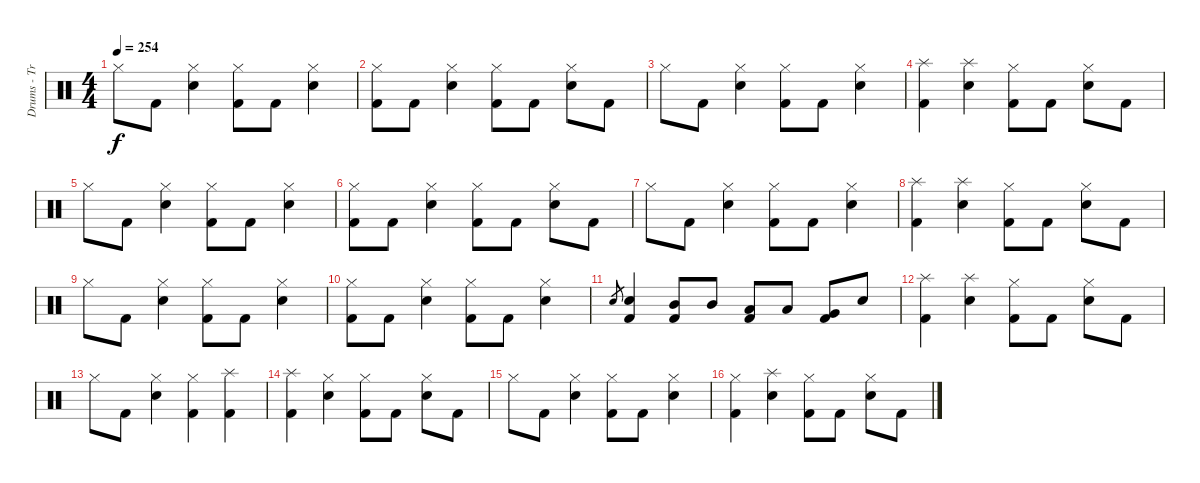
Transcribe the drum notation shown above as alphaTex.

\track ("Drums - Travis Barker" "Drums - Tr") {instrument percussion}
\staff {score}
\articulation defaults
\ts (4 4)
\tempo 254
\clef neutral
\ks c "Hi-Hat (closed)".8{dy f} "Kick (hit) 2".8
("Hi-Hat (closed)" "Electric Snare (hit)").4 ("Hi-Hat (closed)" "Kick (hit) 2").8 "Kick (hit) 2".8 ("Hi-Hat (closed)" "Electric Snare (hit)").4 |
("Hi-Hat (closed)" "Kick (hit) 2").8 "Kick (hit) 2".8 ("Hi-Hat (closed)" "Electric Snare (hit)").4 ("Hi-Hat (closed)" "Kick (hit) 2").8 "Kick (hit) 2".8 ("Hi-Hat (closed)" "Electric Snare (hit)").8 "Kick (hit) 2".8 |
"Hi-Hat (closed)".8 "Kick (hit) 2".8 ("Hi-Hat (closed)" "Electric Snare (hit)").4 ("Hi-Hat (closed)" "Kick (hit) 2").8 "Kick (hit) 2".8 ("Hi-Hat (closed)" "Electric Snare (hit)").4 |
("Splash (hit)" "Kick (hit) 2").4 ("Splash (hit)" "Electric Snare (hit)").4 ("Hi-Hat (closed)" "Kick (hit) 2").8 "Kick (hit) 2".8 ("Hi-Hat (closed)" "Electric Snare (hit)").8 "Kick (hit) 2".8 |
"Hi-Hat (closed)".8 "Kick (hit) 2".8 ("Hi-Hat (closed)" "Electric Snare (hit)").4 ("Hi-Hat (closed)" "Kick (hit) 2").8 "Kick (hit) 2".8 ("Hi-Hat (closed)" "Electric Snare (hit)").4 |
("Hi-Hat (closed)" "Kick (hit) 2").8 "Kick (hit) 2".8 ("Hi-Hat (closed)" "Electric Snare (hit)").4 ("Hi-Hat (closed)" "Kick (hit) 2").8 "Kick (hit) 2".8 ("Hi-Hat (closed)" "Electric Snare (hit)").8 "Kick (hit) 2".8 |
"Hi-Hat (closed)".8 "Kick (hit) 2".8 ("Hi-Hat (closed)" "Electric Snare (hit)").4 ("Hi-Hat (closed)" "Kick (hit) 2").8 "Kick (hit) 2".8 ("Hi-Hat (closed)" "Electric Snare (hit)").4 |
("Splash (hit)" "Kick (hit) 2").4 ("Splash (hit)" "Electric Snare (hit)").4 ("Hi-Hat (closed)" "Kick (hit) 2").8 "Kick (hit) 2".8 ("Hi-Hat (closed)" "Electric Snare (hit)").8 "Kick (hit) 2".8 |
"Hi-Hat (closed)".8 "Kick (hit) 2".8 ("Hi-Hat (closed)" "Electric Snare (hit)").4 ("Hi-Hat (closed)" "Kick (hit) 2").8 "Kick (hit) 2".8 ("Hi-Hat (closed)" "Electric Snare (hit)").4 |
("Hi-Hat (closed)" "Kick (hit) 2").8 "Kick (hit) 2".8 ("Hi-Hat (closed)" "Electric Snare (hit)").4 ("Hi-Hat (closed)" "Kick (hit) 2").8 "Kick (hit) 2".8 ("Hi-Hat (closed)" "Electric Snare (hit)").4 |
"Electric Snare (hit)".8{gr} ("Electric Snare (hit)" "Kick (hit) 2").4 ("Mid Tom (hit)" "Kick (hit) 2").8 "Mid Tom (hit)".8 ("Low Tom (hit)" "Kick (hit) 2").8 "Low Tom (hit)".8 ("Very Low Tom (hit)" "Kick (hit) 2").8 "Electric Snare (hit)".8 |
("Splash (hit)" "Kick (hit) 2").4 ("Splash (hit)" "Electric Snare (hit)").4 ("Hi-Hat (closed)" "Kick (hit) 2").8 "Kick (hit) 2".8 ("Hi-Hat (closed)" "Electric Snare (hit)").8 "Kick (hit) 2".8 |
"Hi-Hat (closed)".8 "Kick (hit) 2".8 ("Hi-Hat (closed)" "Electric Snare (hit)").4 ("Hi-Hat (closed)" "Kick (hit) 2").4 ("Splash (hit)" "Kick (hit) 2").4 |
("Splash (hit)" "Kick (hit) 2").4 ("Hi-Hat (closed)" "Electric Snare (hit)").4 ("Hi-Hat (closed)" "Kick (hit) 2").8 "Kick (hit) 2".8 ("Hi-Hat (closed)" "Electric Snare (hit)").8 "Kick (hit) 2".8 |
"Hi-Hat (closed)".8 "Kick (hit) 2".8 ("Hi-Hat (closed)" "Electric Snare (hit)").4 ("Hi-Hat (closed)" "Kick (hit) 2").8 "Kick (hit) 2".8 ("Hi-Hat (closed)" "Electric Snare (hit)").4 |
("Hi-Hat (closed)" "Kick (hit) 2").4 ("Splash (hit)" "Electric Snare (hit)").4 ("Hi-Hat (closed)" "Kick (hit) 2").8 "Kick (hit) 2".8 ("Hi-Hat (closed)" "Electric Snare (hit)").8 "Kick (hit) 2".8
